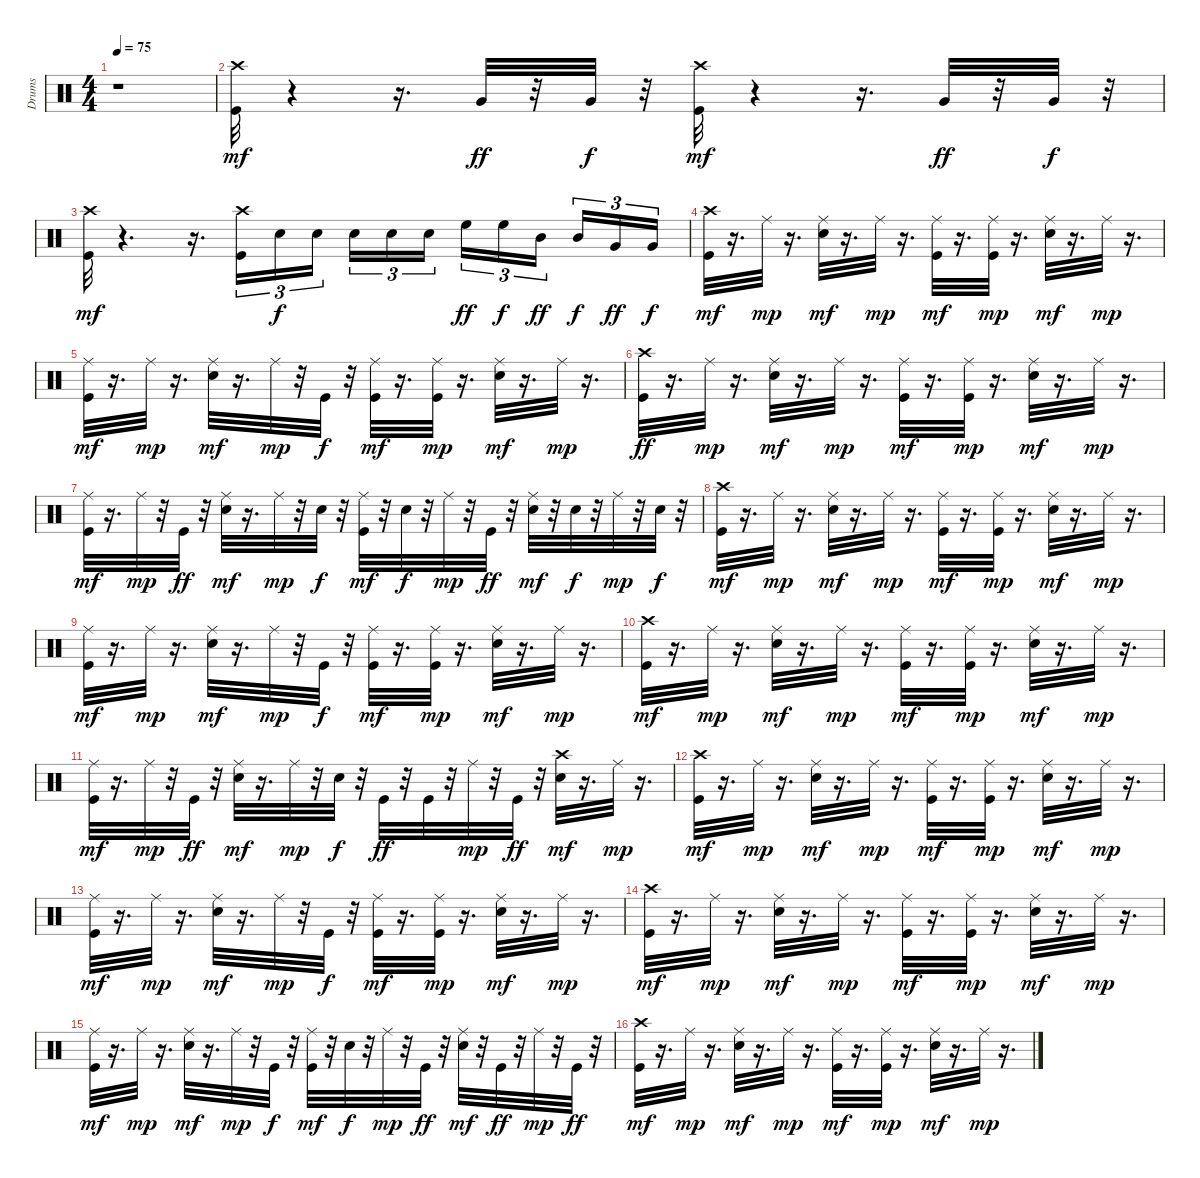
\track ("Drums" "Drums") {instrument percussion}
\staff {score}
\articulation defaults
\ts (4 4)
\tempo 75
\clef neutral
\ks c
r.1{dy mf} |
("Kick (hit)" "Crash high (hit)").32 r.4 r.16{d} "Very Low Tom (hit)".32{dy ff} r.32 "Very Low Tom (hit)".32{dy f} r.32 ("Kick (hit)" "Crash high (hit)").32{dy mf} r.4 r.16{d} "Very Low Tom (hit)".32{dy ff} r.32 "Very Low Tom (hit)".32{dy f} r.32 |
("Kick (hit)" "Crash high (hit)").32{dy mf} r.4{d} r.16{d} ("Kick (hit)" "Crash high (hit)").16{tu (3 2)} "Snare (hit) 2".16{tu (3 2) dy f} "Snare (hit) 2".16{tu (3 2)} "Snare (hit) 2".16{tu (3 2)} "Snare (hit) 2".16{tu (3 2)} "Snare (hit) 2".16{tu (3 2)} "High Floor Tom (hit)".16{tu (3 2) dy ff} "High Floor Tom (hit)".16{tu (3 2) dy f} "Mid Tom (hit)".16{tu (3 2) dy ff} "Mid Tom (hit)".16{tu (3 2) dy f} "Very Low Tom (hit)".16{tu (3 2) dy ff} "Very Low Tom (hit)".16{tu (3 2) dy f} |
("Kick (hit)" "Crash high (hit)").32{dy mf} r.16{d} "Ride (middle)".32{dy mp} r.16{d} ("Snare (hit) 2" "Ride (middle)").32{dy mf} r.16{d} "Ride (middle)".32{dy mp} r.16{d} ("Kick (hit)" "Ride (middle)").32{dy mf} r.16{d} ("Kick (hit)" "Ride (middle)").32{dy mp} r.16{d} ("Snare (hit) 2" "Ride (middle)").32{dy mf} r.16{d} "Ride (middle)".32{dy mp} r.16{d} |
("Kick (hit)" "Ride (middle)").32{dy mf} r.16{d} "Ride (middle)".32{dy mp} r.16{d} ("Snare (hit) 2" "Ride (middle)").32{dy mf} r.16{d} "Ride (middle)".32{dy mp} r.32 "Kick (hit)".32{dy f} r.32 ("Kick (hit)" "Ride (middle)").32{dy mf} r.16{d} ("Kick (hit)" "Ride (middle)").32{dy mp} r.16{d} ("Snare (hit) 2" "Ride (middle)").32{dy mf} r.16{d} "Ride (middle)".32{dy mp} r.16{d} |
("Kick (hit)" "Crash high (hit)").32{dy ff} r.16{d} "Ride (middle)".32{dy mp} r.16{d} ("Snare (hit) 2" "Ride (middle)").32{dy mf} r.16{d} "Ride (middle)".32{dy mp} r.16{d} ("Kick (hit)" "Ride (middle)").32{dy mf} r.16{d} ("Kick (hit)" "Ride (middle)").32{dy mp} r.16{d} ("Snare (hit) 2" "Ride (middle)").32{dy mf} r.16{d} "Ride (middle)".32{dy mp} r.16{d} |
("Kick (hit)" "Ride (middle)").32{dy mf} r.16{d} "Ride (middle)".32{dy mp} r.32 "Kick (hit)".32{dy ff} r.32 ("Snare (hit) 2" "Ride (middle)").32{dy mf} r.16{d} "Ride (middle)".32{dy mp} r.32 "Snare (hit) 2".32{dy f} r.32 ("Kick (hit)" "Ride (middle)").32{dy mf} r.32 "Snare (hit) 2".32{dy f} r.32 "Ride (middle)".32{dy mp} r.32 "Kick (hit)".32{dy ff} r.32 ("Snare (hit) 2" "Ride (middle)").32{dy mf} r.32 "Snare (hit) 2".32{dy f} r.32 "Ride (middle)".32{dy mp} r.32 "Snare (hit) 2".32{dy f} r.32 |
("Kick (hit)" "Crash high (hit)").32{dy mf} r.16{d} "Ride (middle)".32{dy mp} r.16{d} ("Snare (hit) 2" "Ride (middle)").32{dy mf} r.16{d} "Ride (middle)".32{dy mp} r.16{d} ("Kick (hit)" "Ride (middle)").32{dy mf} r.16{d} ("Kick (hit)" "Ride (middle)").32{dy mp} r.16{d} ("Snare (hit) 2" "Ride (middle)").32{dy mf} r.16{d} "Ride (middle)".32{dy mp} r.16{d} |
("Kick (hit)" "Ride (middle)").32{dy mf} r.16{d} "Ride (middle)".32{dy mp} r.16{d} ("Snare (hit) 2" "Ride (middle)").32{dy mf} r.16{d} "Ride (middle)".32{dy mp} r.32 "Kick (hit)".32{dy f} r.32 ("Kick (hit)" "Ride (middle)").32{dy mf} r.16{d} ("Kick (hit)" "Ride (middle)").32{dy mp} r.16{d} ("Snare (hit) 2" "Ride (middle)").32{dy mf} r.16{d} "Ride (middle)".32{dy mp} r.16{d} |
("Kick (hit)" "Crash high (hit)").32{dy mf} r.16{d} "Ride (middle)".32{dy mp} r.16{d} ("Snare (hit) 2" "Ride (middle)").32{dy mf} r.16{d} "Ride (middle)".32{dy mp} r.16{d} ("Kick (hit)" "Ride (middle)").32{dy mf} r.16{d} ("Kick (hit)" "Ride (middle)").32{dy mp} r.16{d} ("Snare (hit) 2" "Ride (middle)").32{dy mf} r.16{d} "Ride (middle)".32{dy mp} r.16{d} |
("Kick (hit)" "Ride (middle)").32{dy mf} r.16{d} "Ride (middle)".32{dy mp} r.32 "Kick (hit)".32{dy ff} r.32 ("Snare (hit) 2" "Ride (middle)").32{dy mf} r.16{d} "Ride (middle)".32{dy mp} r.32 "Snare (hit) 2".32{dy f} r.32 "Kick (hit)".32{dy ff} r.32 "Kick (hit)".32 r.32 "Ride (middle)".32{dy mp} r.32 "Kick (hit)".32{dy ff} r.32 ("Snare (hit) 2" "Crash high (hit)").32{dy mf} r.16{d} "Ride (middle)".32{dy mp} r.16{d} |
("Kick (hit)" "Crash high (hit)").32{dy mf} r.16{d} "Ride (middle)".32{dy mp} r.16{d} ("Snare (hit) 2" "Ride (middle)").32{dy mf} r.16{d} "Ride (middle)".32{dy mp} r.16{d} ("Kick (hit)" "Ride (middle)").32{dy mf} r.16{d} ("Kick (hit)" "Ride (middle)").32{dy mp} r.16{d} ("Snare (hit) 2" "Ride (middle)").32{dy mf} r.16{d} "Ride (middle)".32{dy mp} r.16{d} |
("Kick (hit)" "Ride (middle)").32{dy mf} r.16{d} "Ride (middle)".32{dy mp} r.16{d} ("Snare (hit) 2" "Ride (middle)").32{dy mf} r.16{d} "Ride (middle)".32{dy mp} r.32 "Kick (hit)".32{dy f} r.32 ("Kick (hit)" "Ride (middle)").32{dy mf} r.16{d} ("Kick (hit)" "Ride (middle)").32{dy mp} r.16{d} ("Snare (hit) 2" "Ride (middle)").32{dy mf} r.16{d} "Ride (middle)".32{dy mp} r.16{d} |
("Kick (hit)" "Crash high (hit)").32{dy mf} r.16{d} "Ride (middle)".32{dy mp} r.16{d} ("Snare (hit) 2" "Ride (middle)").32{dy mf} r.16{d} "Ride (middle)".32{dy mp} r.16{d} ("Kick (hit)" "Ride (middle)").32{dy mf} r.16{d} ("Kick (hit)" "Ride (middle)").32{dy mp} r.16{d} ("Snare (hit) 2" "Ride (middle)").32{dy mf} r.16{d} "Ride (middle)".32{dy mp} r.16{d} |
("Kick (hit)" "Ride (middle)").32{dy mf} r.16{d} "Ride (middle)".32{dy mp} r.16{d} ("Snare (hit) 2" "Ride (middle)").32{dy mf} r.16{d} "Ride (middle)".32{dy mp} r.32 "Kick (hit)".32{dy f} r.32 ("Kick (hit)" "Ride (middle)").32{dy mf} r.32 "Snare (hit) 2".32{dy f} r.32 "Ride (middle)".32{dy mp} r.32 "Kick (hit)".32{dy ff} r.32 ("Snare (hit) 2" "Ride (middle)").32{dy mf} r.32 "Kick (hit)".32{dy ff} r.32 "Ride (middle)".32{dy mp} r.32 "Kick (hit)".32{dy ff} r.32 |
("Kick (hit)" "Crash high (hit)").32{dy mf} r.16{d} "Ride (middle)".32{dy mp} r.16{d} ("Snare (hit) 2" "Ride (middle)").32{dy mf} r.16{d} "Ride (middle)".32{dy mp} r.16{d} ("Kick (hit)" "Ride (middle)").32{dy mf} r.16{d} ("Kick (hit)" "Ride (middle)").32{dy mp} r.16{d} ("Snare (hit) 2" "Ride (middle)").32{dy mf} r.16{d} "Ride (middle)".32{dy mp} r.16{d}
